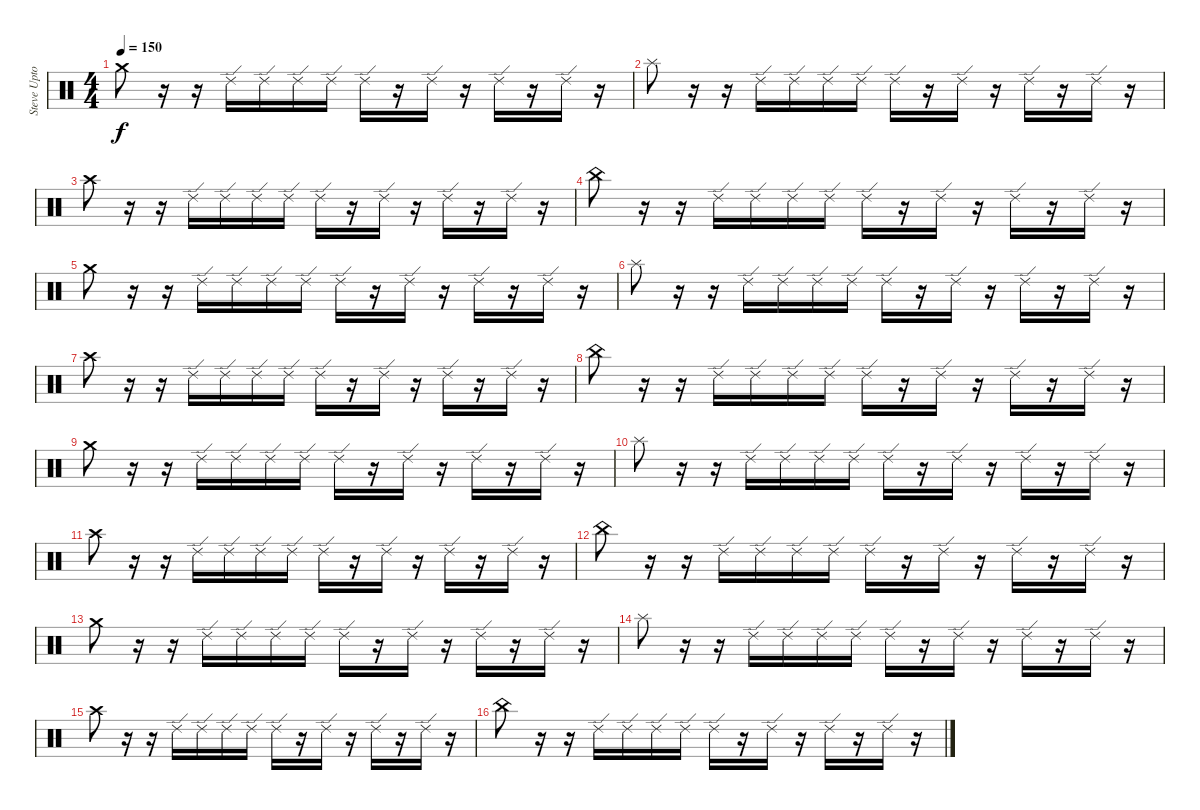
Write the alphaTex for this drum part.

\track ("Steve Upton (drums)" "Steve Upto") {instrument percussion}
\staff {score}
\articulation defaults
\ts (4 4)
\tempo 150
\clef neutral
\ks c "Crash medium (hit)".8{dy f}
r.16 r.16 "Ride (edge) 2".16 "Ride (edge) 2".16 "Ride (edge) 2".16 "Ride (edge) 2".16 "Ride (edge) 2".16 r.16 "Ride (edge) 2".16 r.16 "Ride (edge) 2".16 r.16 "Ride (edge) 2".16 r.16 |
"Splash (hit)".8 r.16 r.16 "Ride (edge) 2".16 "Ride (edge) 2".16 "Ride (edge) 2".16 "Ride (edge) 2".16 "Ride (edge) 2".16 r.16 "Ride (edge) 2".16 r.16 "Ride (edge) 2".16 r.16 "Ride (edge) 2".16 r.16 |
"Crash high (hit)".8 r.16 r.16 "Ride (edge) 2".16 "Ride (edge) 2".16 "Ride (edge) 2".16 "Ride (edge) 2".16 "Ride (edge) 2".16 r.16 "Ride (edge) 2".16 r.16 "Ride (edge) 2".16 r.16 "Ride (edge) 2".16 r.16 |
"China (hit)".8 r.16 r.16 "Ride (edge) 2".16 "Ride (edge) 2".16 "Ride (edge) 2".16 "Ride (edge) 2".16 "Ride (edge) 2".16 r.16 "Ride (edge) 2".16 r.16 "Ride (edge) 2".16 r.16 "Ride (edge) 2".16 r.16 |
"Crash medium (hit)".8 r.16 r.16 "Ride (edge) 2".16 "Ride (edge) 2".16 "Ride (edge) 2".16 "Ride (edge) 2".16 "Ride (edge) 2".16 r.16 "Ride (edge) 2".16 r.16 "Ride (edge) 2".16 r.16 "Ride (edge) 2".16 r.16 |
"Splash (hit)".8 r.16 r.16 "Ride (edge) 2".16 "Ride (edge) 2".16 "Ride (edge) 2".16 "Ride (edge) 2".16 "Ride (edge) 2".16 r.16 "Ride (edge) 2".16 r.16 "Ride (edge) 2".16 r.16 "Ride (edge) 2".16 r.16 |
"Crash high (hit)".8 r.16 r.16 "Ride (edge) 2".16 "Ride (edge) 2".16 "Ride (edge) 2".16 "Ride (edge) 2".16 "Ride (edge) 2".16 r.16 "Ride (edge) 2".16 r.16 "Ride (edge) 2".16 r.16 "Ride (edge) 2".16 r.16 |
"China (hit)".8 r.16 r.16 "Ride (edge) 2".16 "Ride (edge) 2".16 "Ride (edge) 2".16 "Ride (edge) 2".16 "Ride (edge) 2".16 r.16 "Ride (edge) 2".16 r.16 "Ride (edge) 2".16 r.16 "Ride (edge) 2".16 r.16 |
"Crash medium (hit)".8 r.16 r.16 "Ride (edge) 2".16 "Ride (edge) 2".16 "Ride (edge) 2".16 "Ride (edge) 2".16 "Ride (edge) 2".16 r.16 "Ride (edge) 2".16 r.16 "Ride (edge) 2".16 r.16 "Ride (edge) 2".16 r.16 |
"Splash (hit)".8 r.16 r.16 "Ride (edge) 2".16 "Ride (edge) 2".16 "Ride (edge) 2".16 "Ride (edge) 2".16 "Ride (edge) 2".16 r.16 "Ride (edge) 2".16 r.16 "Ride (edge) 2".16 r.16 "Ride (edge) 2".16 r.16 |
"Crash high (hit)".8 r.16 r.16 "Ride (edge) 2".16 "Ride (edge) 2".16 "Ride (edge) 2".16 "Ride (edge) 2".16 "Ride (edge) 2".16 r.16 "Ride (edge) 2".16 r.16 "Ride (edge) 2".16 r.16 "Ride (edge) 2".16 r.16 |
"China (hit)".8 r.16 r.16 "Ride (edge) 2".16 "Ride (edge) 2".16 "Ride (edge) 2".16 "Ride (edge) 2".16 "Ride (edge) 2".16 r.16 "Ride (edge) 2".16 r.16 "Ride (edge) 2".16 r.16 "Ride (edge) 2".16 r.16 |
"Crash medium (hit)".8 r.16 r.16 "Ride (edge) 2".16 "Ride (edge) 2".16 "Ride (edge) 2".16 "Ride (edge) 2".16 "Ride (edge) 2".16 r.16 "Ride (edge) 2".16 r.16 "Ride (edge) 2".16 r.16 "Ride (edge) 2".16 r.16 |
"Splash (hit)".8 r.16 r.16 "Ride (edge) 2".16 "Ride (edge) 2".16 "Ride (edge) 2".16 "Ride (edge) 2".16 "Ride (edge) 2".16 r.16 "Ride (edge) 2".16 r.16 "Ride (edge) 2".16 r.16 "Ride (edge) 2".16 r.16 |
"Crash high (hit)".8 r.16 r.16 "Ride (edge) 2".16 "Ride (edge) 2".16 "Ride (edge) 2".16 "Ride (edge) 2".16 "Ride (edge) 2".16 r.16 "Ride (edge) 2".16 r.16 "Ride (edge) 2".16 r.16 "Ride (edge) 2".16 r.16 |
"China (hit)".8 r.16 r.16 "Ride (edge) 2".16 "Ride (edge) 2".16 "Ride (edge) 2".16 "Ride (edge) 2".16 "Ride (edge) 2".16 r.16 "Ride (edge) 2".16 r.16 "Ride (edge) 2".16 r.16 "Ride (edge) 2".16 r.16
